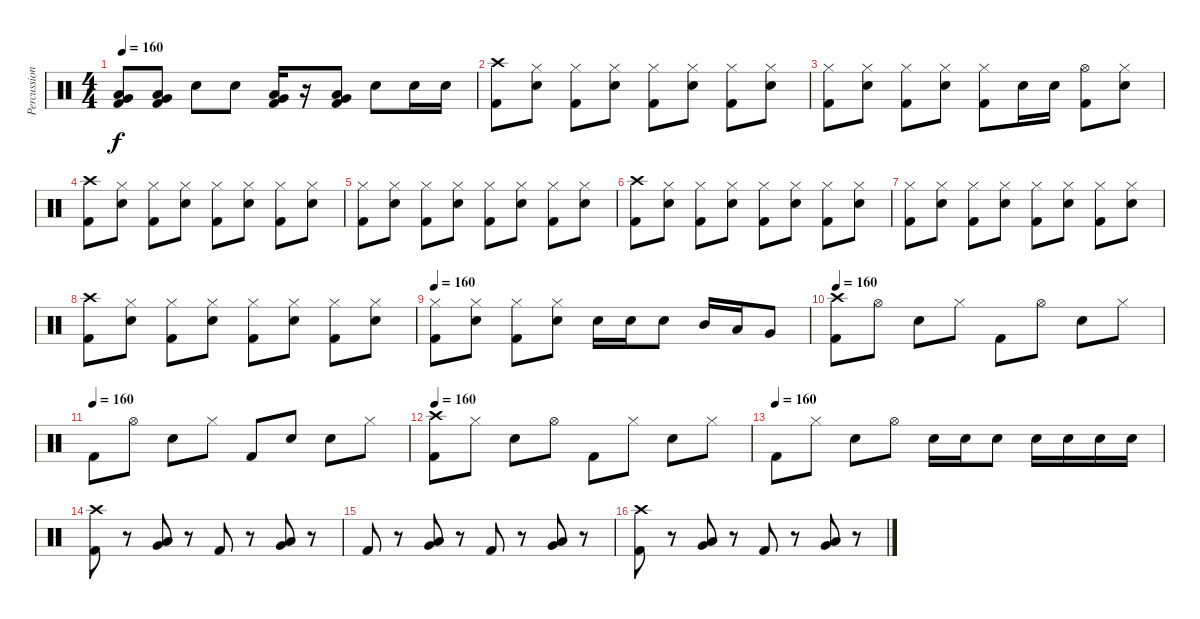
\track ("Percussion" "Percussion") {instrument percussion}
\staff {score}
\articulation defaults
\ts (4 4)
\tempo 160
\clef neutral
\ks c
("Low Tom (hit)" "Very Low Tom (hit)" "Kick (hit) 2").8{dy f} ("Low Tom (hit)" "Very Low Tom (hit)" "Kick (hit) 2").8 "Snare (hit) 2".8 "Snare (hit) 2".8 ("Very Low Tom (hit)" "Low Floor Tom (hit)" "Kick (hit) 2").16 r.16 ("Very Low Tom (hit)" "Low Floor Tom (hit)" "Kick (hit) 2").8 "Snare (hit) 2".8 "Snare (hit) 2".16 "Snare (hit) 2".16 |
("Crash high (hit)" "Kick (hit) 2").8 ("Hi-Hat (closed)" "Snare (hit) 2").8 ("Hi-Hat (closed)" "Kick (hit) 2").8 ("Hi-Hat (closed)" "Snare (hit) 2").8 ("Hi-Hat (closed)" "Kick (hit) 2").8 ("Hi-Hat (closed)" "Snare (hit) 2").8 ("Hi-Hat (closed)" "Kick (hit) 2").8 ("Hi-Hat (closed)" "Snare (hit) 2").8 |
("Hi-Hat (closed)" "Kick (hit) 2").8 ("Hi-Hat (closed)" "Snare (hit) 2").8 ("Hi-Hat (closed)" "Kick (hit) 2").8 ("Hi-Hat (closed)" "Snare (hit) 2").8 ("Hi-Hat (closed)" "Kick (hit) 2").8 "Snare (hit) 2".16 "Snare (hit) 2".16 ("Hi-Hat (open)" "Kick (hit) 2").8 ("Hi-Hat (closed)" "Snare (hit) 2").8 |
("Crash high (hit)" "Kick (hit) 2").8 ("Hi-Hat (closed)" "Snare (hit) 2").8 ("Hi-Hat (closed)" "Kick (hit) 2").8 ("Hi-Hat (closed)" "Snare (hit) 2").8 ("Hi-Hat (closed)" "Kick (hit) 2").8 ("Hi-Hat (closed)" "Snare (hit) 2").8 ("Hi-Hat (closed)" "Kick (hit) 2").8 ("Hi-Hat (closed)" "Snare (hit) 2").8 |
("Hi-Hat (closed)" "Kick (hit) 2").8 ("Hi-Hat (closed)" "Snare (hit) 2").8 ("Hi-Hat (closed)" "Kick (hit) 2").8 ("Hi-Hat (closed)" "Snare (hit) 2").8 ("Hi-Hat (closed)" "Kick (hit) 2").8 ("Hi-Hat (closed)" "Snare (hit) 2").8 ("Hi-Hat (closed)" "Kick (hit) 2").8 ("Hi-Hat (closed)" "Snare (hit) 2").8 |
("Crash high (hit)" "Kick (hit) 2").8 ("Hi-Hat (closed)" "Snare (hit) 2").8 ("Hi-Hat (closed)" "Kick (hit) 2").8 ("Hi-Hat (closed)" "Snare (hit) 2").8 ("Hi-Hat (closed)" "Kick (hit) 2").8 ("Hi-Hat (closed)" "Snare (hit) 2").8 ("Hi-Hat (closed)" "Kick (hit) 2").8 ("Hi-Hat (closed)" "Snare (hit) 2").8 |
("Hi-Hat (closed)" "Kick (hit) 2").8 ("Hi-Hat (closed)" "Snare (hit) 2").8 ("Hi-Hat (closed)" "Kick (hit) 2").8 ("Hi-Hat (closed)" "Snare (hit) 2").8 ("Hi-Hat (closed)" "Kick (hit) 2").8 ("Hi-Hat (closed)" "Snare (hit) 2").8 ("Hi-Hat (closed)" "Kick (hit) 2").8 ("Hi-Hat (closed)" "Snare (hit) 2").8 |
("Crash high (hit)" "Kick (hit) 2").8 ("Hi-Hat (closed)" "Snare (hit) 2").8 ("Hi-Hat (closed)" "Kick (hit) 2").8 ("Hi-Hat (closed)" "Snare (hit) 2").8 ("Hi-Hat (closed)" "Kick (hit) 2").8 ("Hi-Hat (closed)" "Snare (hit) 2").8 ("Hi-Hat (closed)" "Kick (hit) 2").8 ("Hi-Hat (closed)" "Snare (hit) 2").8 |
\tempo 160
("Hi-Hat (closed)" "Kick (hit) 2").8 ("Hi-Hat (closed)" "Snare (hit) 2").8 ("Hi-Hat (closed)" "Kick (hit) 2").8 ("Hi-Hat (closed)" "Snare (hit) 2").8 "Snare (hit) 2".16 "Snare (hit) 2".16 "Snare (hit) 2".8 "Mid Tom (hit)".16 "Low Tom (hit)".16 "Very Low Tom (hit)".8 |
\tempo 160
("Crash high (hit)" "Kick (hit) 2").8 "Hi-Hat (open)".8 "Snare (hit) 2".8 "Hi-Hat (closed)".8 "Kick (hit) 2".8 "Hi-Hat (open)".8 "Snare (hit) 2".8 "Hi-Hat (closed)".8 |
\tempo (160)
"Kick (hit) 2".8 "Hi-Hat (open)".8 "Snare (hit) 2".8 "Hi-Hat (closed)".8 "Kick (hit) 2".8 "Snare (hit) 2".8 "Snare (hit) 2".8 "Hi-Hat (closed)".8 |
\tempo 160
("Crash high (hit)" "Kick (hit) 2").8 "Hi-Hat (closed)".8 "Snare (hit) 2".8 "Hi-Hat (open)".8 "Kick (hit) 2".8 "Hi-Hat (closed)".8 "Snare (hit) 2".8 "Hi-Hat (closed)".8 |
\tempo (160)
"Kick (hit) 2".8 "Hi-Hat (closed)".8 "Snare (hit) 2".8 "Hi-Hat (open)".8 "Snare (hit) 2".16 "Snare (hit) 2".16 "Snare (hit) 2".8 "Snare (hit) 2".16 "Snare (hit) 2".16 "Snare (hit) 2".16 "Snare (hit) 2".16 |
("Crash high (hit)" "Kick (hit) 2").8 r.8 ("Very Low Tom (hit)" "Low Floor Tom (hit)").8 r.8 "Kick (hit) 2".8 r.8 ("Very Low Tom (hit)" "Low Floor Tom (hit)").8 r.8 |
"Kick (hit) 2".8 r.8 ("Very Low Tom (hit)" "Low Floor Tom (hit)").8 r.8 "Kick (hit) 2".8 r.8 ("Very Low Tom (hit)" "Low Floor Tom (hit)").8 r.8 |
("Crash high (hit)" "Kick (hit) 2").8 r.8 ("Very Low Tom (hit)" "Low Floor Tom (hit)").8 r.8 "Kick (hit) 2".8 r.8 ("Very Low Tom (hit)" "Low Floor Tom (hit)").8 r.8
